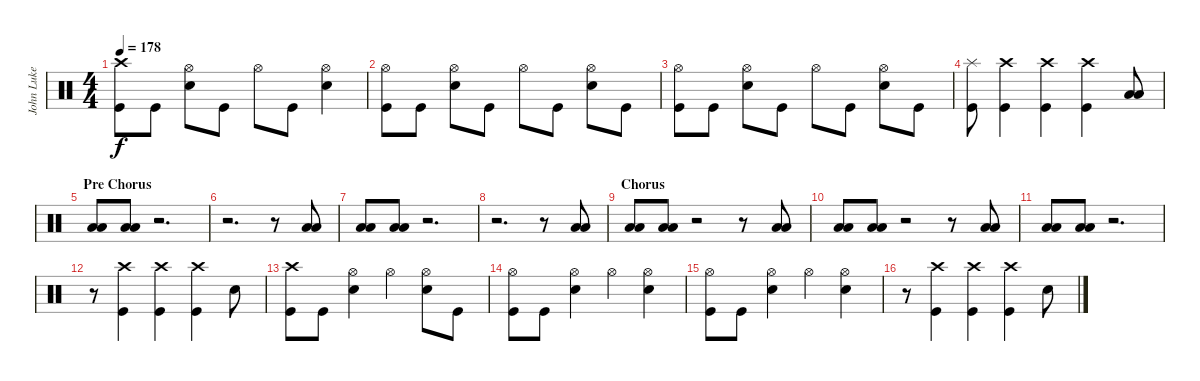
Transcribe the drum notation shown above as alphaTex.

\track ("John Luke (Drums)" "John Luke ") {instrument percussion}
\staff {score}
\articulation defaults
\ts (4 4)
\tempo 178
\clef neutral
\ks c
("Crash high (hit)" "Kick (hit)").8{dy f} "Kick (hit)".8 ("Hi-Hat (open)" "Electric Snare (hit)").8 "Kick (hit)".8 "Hi-Hat (open)".8 "Kick (hit)".8 ("Hi-Hat (open)" "Electric Snare (hit)").4 |
("Hi-Hat (open)" "Kick (hit)").8 "Kick (hit)".8 ("Hi-Hat (open)" "Electric Snare (hit)").8 "Kick (hit)".8 "Hi-Hat (open)".8 "Kick (hit)".8 ("Hi-Hat (open)" "Electric Snare (hit)").8 "Kick (hit)".8 |
("Hi-Hat (open)" "Kick (hit)").8 "Kick (hit)".8 ("Hi-Hat (open)" "Electric Snare (hit)").8 "Kick (hit)".8 "Hi-Hat (open)".8 "Kick (hit)".8 ("Hi-Hat (open)" "Electric Snare (hit)").8 "Kick (hit)".8 |
("Splash (hit)" "Kick (hit)").8 ("Crash high (hit)" "Kick (hit)").4 ("Crash high (hit)" "Kick (hit)").4 ("Crash high (hit)" "Kick (hit)").4 ("Low Floor Tom (hit)" "Low Floor Tom (hit)").8{bu 120} |
\section ("" "Pre Chorus")
("Low Floor Tom (hit)" "Low Floor Tom (hit)").8{bu 120} ("Low Floor Tom (hit)" "Low Floor Tom (hit)").8{bu 120} r.2{d} |
r.2{d} r.8 ("Low Floor Tom (hit)" "Low Floor Tom (hit)").8{bu 120} |
("Low Floor Tom (hit)" "Low Floor Tom (hit)").8{bu 120} ("Low Floor Tom (hit)" "Low Floor Tom (hit)").8{bu 120} r.2{d} |
r.2{d} r.8 ("Low Floor Tom (hit)" "Low Floor Tom (hit)").8{bu 120} |
\section ("" "Chorus")
("Low Floor Tom (hit)" "Low Floor Tom (hit)").8{bu 120} ("Low Floor Tom (hit)" "Low Floor Tom (hit)").8{bu 120} r.2 r.8 ("Low Floor Tom (hit)" "Low Floor Tom (hit)").8{bu 120} |
("Low Floor Tom (hit)" "Low Floor Tom (hit)").8{bu 120} ("Low Floor Tom (hit)" "Low Floor Tom (hit)").8{bu 120} r.2 r.8 ("Low Floor Tom (hit)" "Low Floor Tom (hit)").8{bu 120} |
("Low Floor Tom (hit)" "Low Floor Tom (hit)").8{bu 120} ("Low Floor Tom (hit)" "Low Floor Tom (hit)").8{bu 120} r.2{d} |
r.8 ("Crash high (hit)" "Kick (hit)").4 ("Crash high (hit)" "Kick (hit)").4 ("Crash high (hit)" "Kick (hit)").4 "Electric Snare (hit)".8 |
("Crash high (hit)" "Kick (hit)").8 "Kick (hit)".8 ("Hi-Hat (open)" "Electric Snare (hit)").4 "Hi-Hat (open)".4 ("Hi-Hat (open)" "Electric Snare (hit)").8 "Kick (hit)".8 |
("Hi-Hat (open)" "Kick (hit)").8 "Kick (hit)".8 ("Hi-Hat (open)" "Electric Snare (hit)").4 "Hi-Hat (open)".4 ("Hi-Hat (open)" "Electric Snare (hit)").4 |
("Hi-Hat (open)" "Kick (hit)").8 "Kick (hit)".8 ("Hi-Hat (open)" "Electric Snare (hit)").4 "Hi-Hat (open)".4 ("Hi-Hat (open)" "Electric Snare (hit)").4 |
r.8 ("Crash high (hit)" "Kick (hit)").4 ("Crash high (hit)" "Kick (hit)").4 ("Crash high (hit)" "Kick (hit)").4 "Electric Snare (hit)".8
